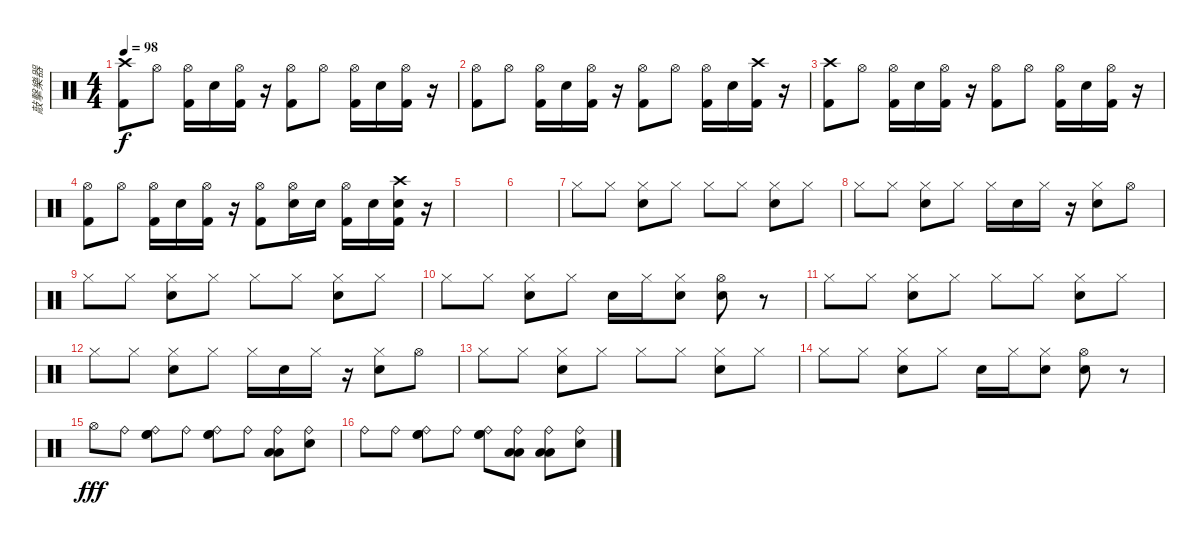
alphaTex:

\track ("敲擊樂器" "敲擊樂器") {instrument percussion}
\staff {score}
\articulation defaults
\ts (4 4)
\tempo 98
\clef neutral
\ks c
("Kick (hit) 2" "Crash high (hit)").8{dy f} "Hi-Hat (open)".8 ("Kick (hit) 2" "Hi-Hat (open)").16 "Snare (hit) 2".16 ("Kick (hit) 2" "Hi-Hat (open)").16 r.16 ("Kick (hit) 2" "Hi-Hat (open)").8 "Hi-Hat (open)".8 ("Kick (hit) 2" "Hi-Hat (open)").16 "Snare (hit) 2".16 ("Kick (hit) 2" "Hi-Hat (open)").16 r.16 |
("Kick (hit) 2" "Hi-Hat (open)").8 "Hi-Hat (open)".8 ("Kick (hit) 2" "Hi-Hat (open)").16 "Snare (hit) 2".16 ("Kick (hit) 2" "Hi-Hat (open)").16 r.16 ("Kick (hit) 2" "Hi-Hat (open)").8 "Hi-Hat (open)".8 ("Kick (hit) 2" "Hi-Hat (open)").16 "Snare (hit) 2".16 ("Kick (hit) 2" "Crash high (hit)").16 r.16 |
("Kick (hit) 2" "Crash high (hit)").8 "Hi-Hat (open)".8 ("Kick (hit) 2" "Hi-Hat (open)").16 "Snare (hit) 2".16 ("Kick (hit) 2" "Hi-Hat (open)").16 r.16 ("Kick (hit) 2" "Hi-Hat (open)").8 "Hi-Hat (open)".8 ("Kick (hit) 2" "Hi-Hat (open)").16 "Snare (hit) 2".16 ("Kick (hit) 2" "Hi-Hat (open)").16 r.16 |
("Kick (hit) 2" "Hi-Hat (open)").8 "Hi-Hat (open)".8 ("Kick (hit) 2" "Hi-Hat (open)").16 "Snare (hit) 2".16 ("Kick (hit) 2" "Hi-Hat (open)").16 r.16 ("Kick (hit) 2" "Hi-Hat (open)").8 ("Snare (hit) 2" "Hi-Hat (open)").16 "Snare (hit) 2".16 ("Kick (hit) 2" "Hi-Hat (open)").16 "Snare (hit) 2".16 ("Snare (hit) 2" "Kick (hit) 2" "Crash high (hit)").16 r.16 |
|
|
"Hi-Hat (closed)".8 "Hi-Hat (closed)".8 ("Hi-Hat (closed)" "Snare (hit) 2").8 "Hi-Hat (closed)".8 "Hi-Hat (closed)".8 "Hi-Hat (closed)".8 ("Hi-Hat (closed)" "Snare (hit) 2").8 "Hi-Hat (closed)".8 |
"Hi-Hat (closed)".8 "Hi-Hat (closed)".8 ("Hi-Hat (closed)" "Snare (hit) 2").8 "Hi-Hat (closed)".8 "Hi-Hat (closed)".16 "Snare (hit) 2".16 "Hi-Hat (closed)".16 r.16 ("Hi-Hat (closed)" "Snare (hit) 2").8 "Hi-Hat (open)".8 |
"Hi-Hat (closed)".8 "Hi-Hat (closed)".8 ("Hi-Hat (closed)" "Snare (hit) 2").8 "Hi-Hat (closed)".8 "Hi-Hat (closed)".8 "Hi-Hat (closed)".8 ("Hi-Hat (closed)" "Snare (hit) 2").8 "Hi-Hat (closed)".8 |
"Hi-Hat (closed)".8 "Hi-Hat (closed)".8 ("Hi-Hat (closed)" "Snare (hit) 2").8 "Hi-Hat (closed)".8 "Snare (hit) 2".16 "Hi-Hat (closed)".16 ("Hi-Hat (closed)" "Snare (hit) 2").8 ("Hi-Hat (open)" "Snare (hit) 2").8 r.8 |
"Hi-Hat (closed)".8 "Hi-Hat (closed)".8 ("Hi-Hat (closed)" "Snare (hit) 2").8 "Hi-Hat (closed)".8 "Hi-Hat (closed)".8 "Hi-Hat (closed)".8 ("Hi-Hat (closed)" "Snare (hit) 2").8 "Hi-Hat (closed)".8 |
"Hi-Hat (closed)".8 "Hi-Hat (closed)".8 ("Hi-Hat (closed)" "Snare (hit) 2").8 "Hi-Hat (closed)".8 "Hi-Hat (closed)".16 "Snare (hit) 2".16 "Hi-Hat (closed)".16 r.16 ("Hi-Hat (closed)" "Snare (hit) 2").8 "Hi-Hat (open)".8 |
"Hi-Hat (closed)".8 "Hi-Hat (closed)".8 ("Hi-Hat (closed)" "Snare (hit) 2").8 "Hi-Hat (closed)".8 "Hi-Hat (closed)".8 "Hi-Hat (closed)".8 ("Hi-Hat (closed)" "Snare (hit) 2").8 "Hi-Hat (closed)".8 |
"Hi-Hat (closed)".8 "Hi-Hat (closed)".8 ("Hi-Hat (closed)" "Snare (hit) 2").8 "Hi-Hat (closed)".8 "Snare (hit) 2".16 "Hi-Hat (closed)".16 ("Hi-Hat (closed)" "Snare (hit) 2").8 ("Hi-Hat (open)" "Snare (hit) 2").8 r.8 |
"Hi-Hat (open)".8{dy fff} "Ride (bell)".8 ("Ride (bell)" "High Floor Tom (hit)" "High Floor Tom (hit)").8 "Ride (bell)".8 ("Ride (bell)" "High Floor Tom (hit)" "High Floor Tom (hit)").8 "Ride (bell)".8 ("Ride (bell)" "Low Tom (hit)" "Low Tom (hit)").8 ("Ride (bell)" "Snare (hit) 2").8 |
"Ride (bell)".8 "Ride (bell)".8 ("Ride (bell)" "High Floor Tom (hit)" "High Floor Tom (hit)").8 "Ride (bell)".8 ("Ride (bell)" "High Floor Tom (hit)" "High Floor Tom (hit)").8 ("Ride (bell)" "Low Tom (hit)" "Low Tom (hit)").8 ("Ride (bell)" "Low Tom (hit)" "Low Tom (hit)").8 ("Ride (bell)" "Snare (hit) 2").8
